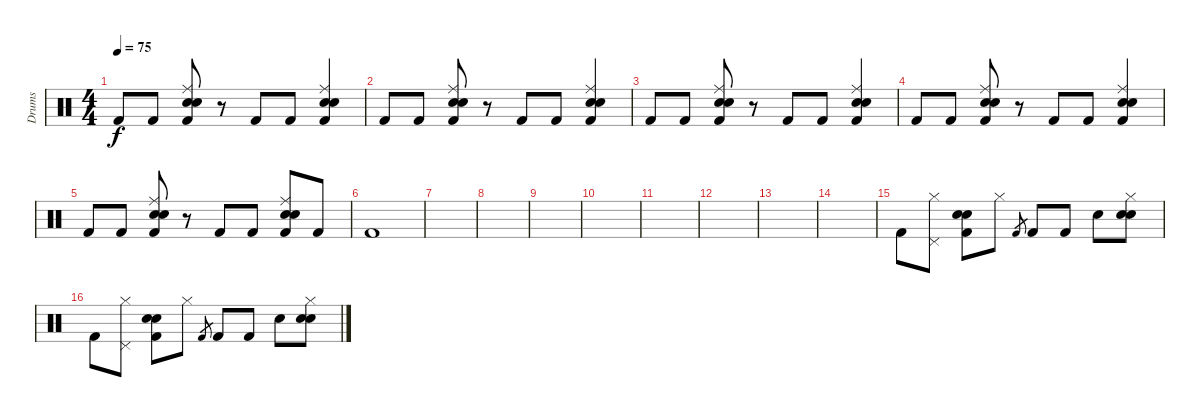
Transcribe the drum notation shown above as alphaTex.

\track ("Drums" "Drums") {instrument percussion}
\staff {score}
\articulation defaults
\ts (4 4)
\tempo 75
\clef neutral
\ks c "Kick (hit) 2".8{dy f} "Kick (hit) 2".8
("Ride (middle)" "Snare (hit) 2" "Electric Snare (hit)" "Kick (hit) 2").8 r.8 "Kick (hit) 2".8 "Kick (hit) 2".8 ("Ride (middle)" "Snare (hit) 2" "Electric Snare (hit)" "Kick (hit) 2").4 |
"Kick (hit) 2".8 "Kick (hit) 2".8 ("Ride (middle)" "Snare (hit) 2" "Electric Snare (hit)" "Kick (hit) 2").8 r.8 "Kick (hit) 2".8 "Kick (hit) 2".8 ("Ride (middle)" "Snare (hit) 2" "Electric Snare (hit)" "Kick (hit) 2").4 |
"Kick (hit) 2".8 "Kick (hit) 2".8 ("Ride (middle)" "Snare (hit) 2" "Electric Snare (hit)" "Kick (hit) 2").8 r.8 "Kick (hit) 2".8 "Kick (hit) 2".8 ("Ride (middle)" "Snare (hit) 2" "Electric Snare (hit)" "Kick (hit) 2").4 |
"Kick (hit) 2".8 "Kick (hit) 2".8 ("Ride (middle)" "Snare (hit) 2" "Electric Snare (hit)" "Kick (hit) 2").8 r.8 "Kick (hit) 2".8 "Kick (hit) 2".8 ("Ride (middle)" "Snare (hit) 2" "Electric Snare (hit)" "Kick (hit) 2").4 |
"Kick (hit) 2".8 "Kick (hit) 2".8 ("Ride (middle)" "Snare (hit) 2" "Electric Snare (hit)" "Kick (hit) 2").8 r.8 "Kick (hit) 2".8 "Kick (hit) 2".8 ("Ride (middle)" "Snare (hit) 2" "Electric Snare (hit)" "Kick (hit) 2").8 "Kick (hit) 2".8 |
"Kick (hit) 2".1 |
|
|
|
|
|
|
|
|
"Kick (hit) 2".8 ("Hi-Hat (closed)" "Pedal Hi-Hat (hit)").8 ("Snare (hit) 2" "Electric Snare (hit)" "Kick (hit) 2").8 "Hi-Hat (closed)".8 "Kick (hit) 2".8{gr} "Kick (hit) 2".8 "Kick (hit) 2".8 "Electric Snare (hit)".8 ("Hi-Hat (closed)" "Snare (hit) 2" "Electric Snare (hit)").8 |
"Kick (hit) 2".8 ("Hi-Hat (closed)" "Pedal Hi-Hat (hit)").8 ("Snare (hit) 2" "Electric Snare (hit)" "Kick (hit) 2").8 "Hi-Hat (closed)".8 "Kick (hit) 2".8{gr} "Kick (hit) 2".8 "Kick (hit) 2".8 "Electric Snare (hit)".8 ("Hi-Hat (closed)" "Snare (hit) 2" "Electric Snare (hit)").8
